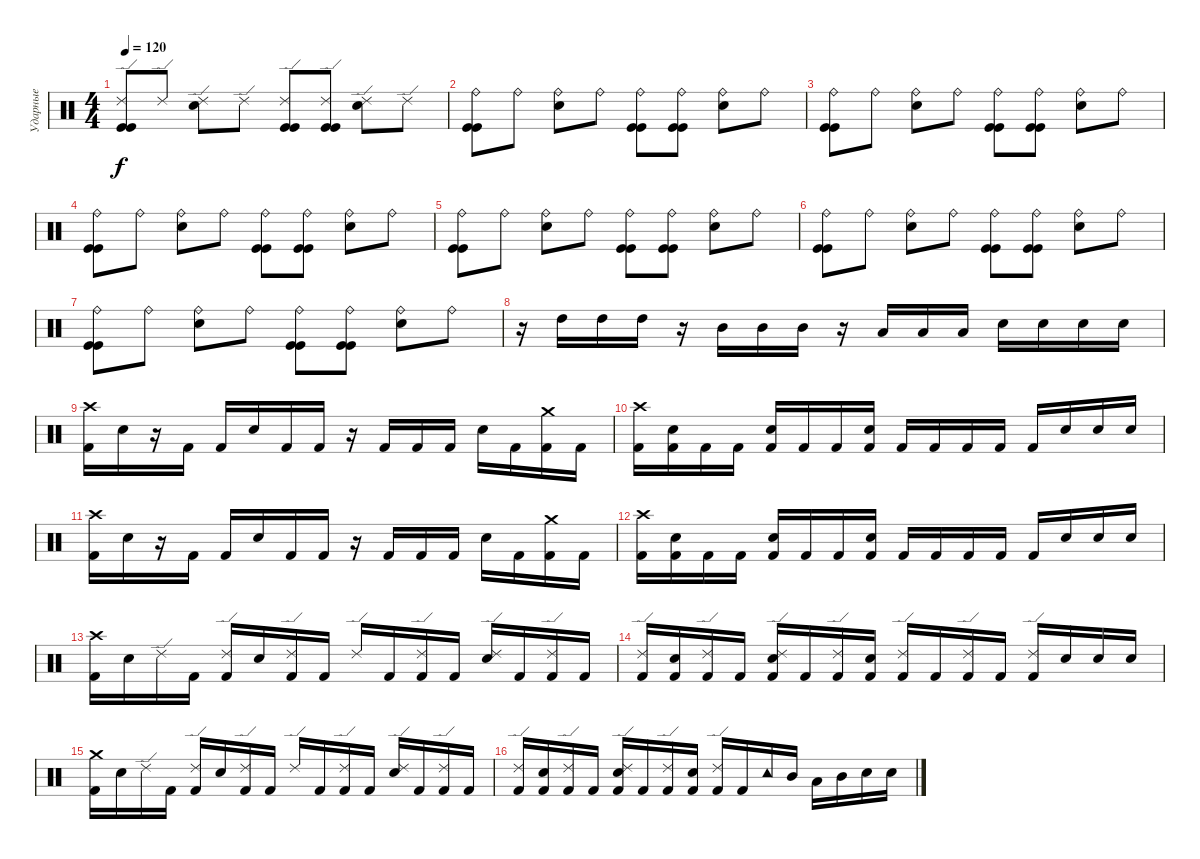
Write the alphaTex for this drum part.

\track ("Ударные" "Ударные") {instrument percussion}
\staff {score}
\articulation defaults
\ts (4 4)
\tempo 120
\clef neutral
\ks c
("Ride (edge) 2" "Kick (hit)" "Kick (hit)").8{dy f} "Ride (edge) 2".8 ("Ride (edge) 2" "Snare (hit) 2").8 "Ride (edge) 2".8 ("Ride (edge) 2" "Kick (hit)" "Kick (hit)").8 ("Ride (edge) 2" "Kick (hit)" "Kick (hit)").8 ("Ride (edge) 2" "Snare (hit) 2").8 "Ride (edge) 2".8 |
("Ride (bell)" "Kick (hit)" "Kick (hit)").8 "Ride (bell)".8 ("Ride (bell)" "Snare (hit) 2").8 "Ride (bell)".8 ("Ride (bell)" "Kick (hit)" "Kick (hit)").8 ("Ride (bell)" "Kick (hit)" "Kick (hit)").8 ("Ride (bell)" "Snare (hit) 2").8 "Ride (bell)".8 |
("Ride (bell)" "Kick (hit)" "Kick (hit)").8 "Ride (bell)".8 ("Ride (bell)" "Snare (hit) 2").8 "Ride (bell)".8 ("Ride (bell)" "Kick (hit)" "Kick (hit)").8 ("Ride (bell)" "Kick (hit)" "Kick (hit)").8 ("Ride (bell)" "Snare (hit) 2").8 "Ride (bell)".8 |
("Ride (bell)" "Kick (hit)" "Kick (hit)").8 "Ride (bell)".8 ("Ride (bell)" "Snare (hit) 2").8 "Ride (bell)".8 ("Ride (bell)" "Kick (hit)" "Kick (hit)").8 ("Ride (bell)" "Kick (hit)" "Kick (hit)").8 ("Ride (bell)" "Snare (hit) 2").8 "Ride (bell)".8 |
("Ride (bell)" "Kick (hit)" "Kick (hit)").8 "Ride (bell)".8 ("Ride (bell)" "Snare (hit) 2").8 "Ride (bell)".8 ("Ride (bell)" "Kick (hit)" "Kick (hit)").8 ("Ride (bell)" "Kick (hit)" "Kick (hit)").8 ("Ride (bell)" "Snare (hit) 2").8 "Ride (bell)".8 |
("Ride (bell)" "Kick (hit)" "Kick (hit)").8 "Ride (bell)".8 ("Ride (bell)" "Snare (hit) 2").8 "Ride (bell)".8 ("Ride (bell)" "Kick (hit)" "Kick (hit)").8 ("Ride (bell)" "Kick (hit)" "Kick (hit)").8 ("Ride (bell)" "Snare (hit) 2").8 "Ride (bell)".8 |
("Ride (bell)" "Kick (hit)" "Kick (hit)").8 "Ride (bell)".8 ("Ride (bell)" "Snare (hit) 2").8 "Ride (bell)".8 ("Ride (bell)" "Kick (hit)" "Kick (hit)").8 ("Ride (bell)" "Kick (hit)" "Kick (hit)").8 ("Ride (bell)" "Snare (hit) 2").8 "Ride (bell)".8 |
r.16 "High Tom (hit)".16 "High Tom (hit)".16 "High Tom (hit)".16 r.16 "Mid Tom (hit)".16 "Mid Tom (hit)".16 "Mid Tom (hit)".16 r.16 "Low Tom (hit)".16 "Low Tom (hit)".16 "Low Tom (hit)".16 "Electric Snare (hit)".16 "Electric Snare (hit)".16 "Electric Snare (hit)".16 "Electric Snare (hit)".16 |
("Crash high (hit)" "Kick (hit) 2").16 "Electric Snare (hit)".16 r.16 "Kick (hit) 2".16 "Kick (hit) 2".16 "Electric Snare (hit)".16 "Kick (hit) 2".16 "Kick (hit) 2".16 r.16 "Kick (hit) 2".16 "Kick (hit) 2".16 "Kick (hit) 2".16 "Electric Snare (hit)".16 "Kick (hit) 2".16 ("Crash medium (hit)" "Kick (hit) 2").16 "Kick (hit) 2".16 |
("Crash high (hit)" "Kick (hit) 2").16 ("Electric Snare (hit)" "Kick (hit) 2").16 "Kick (hit) 2".16 "Kick (hit) 2".16 ("Electric Snare (hit)" "Kick (hit) 2").16 "Kick (hit) 2".16 "Kick (hit) 2".16 ("Electric Snare (hit)" "Kick (hit) 2").16 "Kick (hit) 2".16 "Kick (hit) 2".16 "Kick (hit) 2".16 "Kick (hit) 2".16 "Kick (hit) 2".16 "Electric Snare (hit)".16 "Electric Snare (hit)".16 "Electric Snare (hit)".16 |
("Crash high (hit)" "Kick (hit) 2").16 "Electric Snare (hit)".16 r.16 "Kick (hit) 2".16 "Kick (hit) 2".16 "Electric Snare (hit)".16 "Kick (hit) 2".16 "Kick (hit) 2".16 r.16 "Kick (hit) 2".16 "Kick (hit) 2".16 "Kick (hit) 2".16 "Electric Snare (hit)".16 "Kick (hit) 2".16 ("Crash medium (hit)" "Kick (hit) 2").16 "Kick (hit) 2".16 |
("Crash high (hit)" "Kick (hit) 2").16 ("Electric Snare (hit)" "Kick (hit) 2").16 "Kick (hit) 2".16 "Kick (hit) 2".16 ("Electric Snare (hit)" "Kick (hit) 2").16 "Kick (hit) 2".16 "Kick (hit) 2".16 ("Electric Snare (hit)" "Kick (hit) 2").16 "Kick (hit) 2".16 "Kick (hit) 2".16 "Kick (hit) 2".16 "Kick (hit) 2".16 "Kick (hit) 2".16 "Electric Snare (hit)".16 "Electric Snare (hit)".16 "Electric Snare (hit)".16 |
("Crash high (hit)" "Kick (hit) 2").16 "Electric Snare (hit)".16 "Ride (edge) 2".16 "Kick (hit) 2".16 ("Ride (edge) 2" "Kick (hit) 2").16 "Electric Snare (hit)".16 ("Ride (edge) 2" "Kick (hit) 2").16 "Kick (hit) 2".16 "Ride (edge) 2".16 "Kick (hit) 2".16 ("Ride (edge) 2" "Kick (hit) 2").16 "Kick (hit) 2".16 ("Ride (edge) 2" "Electric Snare (hit)").16 "Kick (hit) 2".16 ("Ride (edge) 2" "Kick (hit) 2").16 "Kick (hit) 2".16 |
("Ride (edge) 2" "Kick (hit) 2").16 ("Electric Snare (hit)" "Kick (hit) 2").16 ("Ride (edge) 2" "Kick (hit) 2").16 "Kick (hit) 2".16 ("Ride (edge) 2" "Electric Snare (hit)" "Kick (hit) 2").16 "Kick (hit) 2".16 ("Ride (edge) 2" "Kick (hit) 2").16 ("Electric Snare (hit)" "Kick (hit) 2").16 ("Ride (edge) 2" "Kick (hit) 2").16 "Kick (hit) 2".16 ("Ride (edge) 2" "Kick (hit) 2").16 "Kick (hit) 2".16 ("Ride (edge) 2" "Kick (hit) 2").16 "Electric Snare (hit)".16 "Electric Snare (hit)".16 "Electric Snare (hit)".16 |
("Crash medium (hit)" "Kick (hit) 2").16 "Electric Snare (hit)".16 "Ride (edge) 2".16 "Kick (hit) 2".16 ("Ride (edge) 2" "Kick (hit) 2").16 "Electric Snare (hit)".16 ("Ride (edge) 2" "Kick (hit) 2").16 "Kick (hit) 2".16 "Ride (edge) 2".16 "Kick (hit) 2".16 ("Ride (edge) 2" "Kick (hit) 2").16 "Kick (hit) 2".16 ("Ride (edge) 2" "Electric Snare (hit)").16 "Kick (hit) 2".16 ("Ride (edge) 2" "Kick (hit) 2").16 "Kick (hit) 2".16 |
("Ride (edge) 2" "Kick (hit) 2").16 ("Electric Snare (hit)" "Kick (hit) 2").16 ("Ride (edge) 2" "Kick (hit) 2").16 "Kick (hit) 2".16 ("Ride (edge) 2" "Electric Snare (hit)" "Kick (hit) 2").16 "Kick (hit) 2".16 ("Ride (edge) 2" "Kick (hit) 2").16 ("Electric Snare (hit)" "Kick (hit) 2").16 ("Ride (edge) 2" "Kick (hit) 2").16 "Kick (hit) 2".16 "Tambourine (hit)".16 "Mid Tom (hit)".16 "Low Tom (hit)".16 "Mid Tom (hit)".16 "Electric Snare (hit)".16 "Electric Snare (hit)".16
